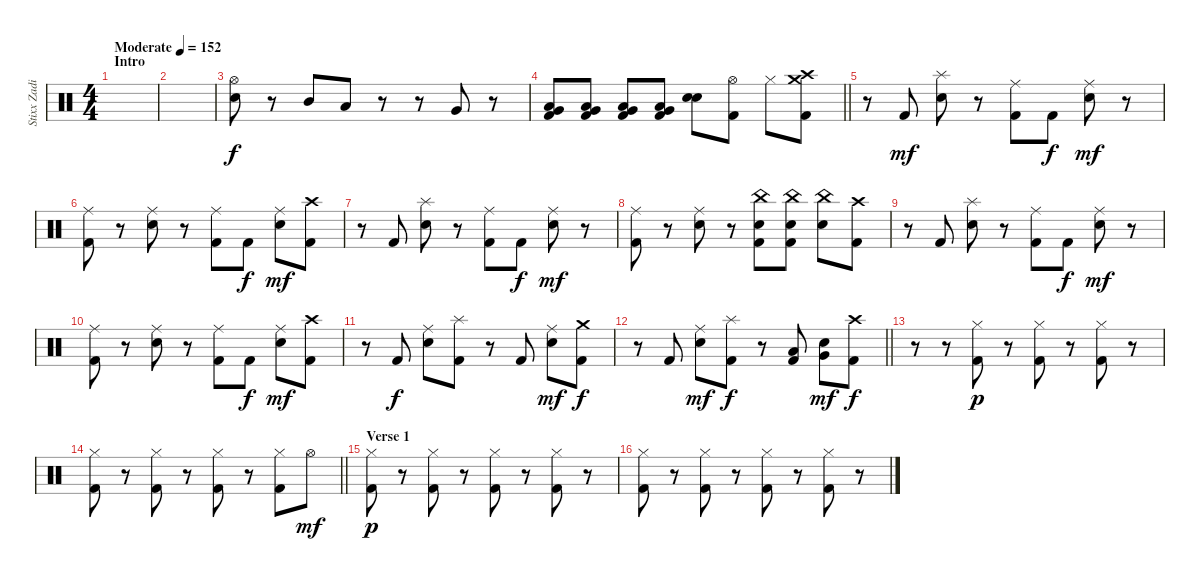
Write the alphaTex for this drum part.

\track ("Stixx Zadinia (Drums)" "Stixx Zadi") {instrument percussion}
\staff {score}
\articulation defaults
\ts (4 4)
\section ("" "Intro")
\tempo (152 "Moderate")
\clef neutral
\ks c
|
|
("Hi-Hat (open)" "Snare (hit) 2").8 r.8 "Mid Tom (hit)".8 "Low Tom (hit)".8 r.8 r.8 "Very Low Tom (hit)".8 r.8 |
\barLineRight lightlight
("Low Floor Tom (hit)" "Very Low Tom (hit)" "Kick (hit) 2").8 ("Low Floor Tom (hit)" "Very Low Tom (hit)" "Kick (hit) 2").8 ("Low Floor Tom (hit)" "Very Low Tom (hit)" "Kick (hit) 2").8 ("Low Floor Tom (hit)" "Very Low Tom (hit)" "Kick (hit) 2").8 ("Snare (hit) 2" "Snare (hit) 2").8 ("Hi-Hat (open)" "Kick (hit) 2").8 "Hi-Hat (closed)".8 ("Crash high (hit)" "Crash medium (hit)" "Kick (hit) 2").8 |
\section ("" "")
r.8 "Kick (hit) 2".8{dy mf} ("Splash (hit)" "Snare (hit) 2").8 r.8 ("Ride (middle)" "Kick (hit) 2").8 "Kick (hit) 2".8{dy f} ("Ride (middle)" "Snare (hit) 2").8{dy mf} r.8 |
("Ride (middle)" "Kick (hit) 2").8 r.8 ("Ride (middle)" "Snare (hit) 2").8 r.8 ("Ride (middle)" "Kick (hit) 2").8 "Kick (hit) 2".8{dy f} ("Ride (middle)" "Snare (hit) 2").8{dy mf} ("Crash high (hit)" "Kick (hit) 2").8 |
r.8 "Kick (hit) 2".8 ("Splash (hit)" "Snare (hit) 2").8 r.8 ("Ride (middle)" "Kick (hit) 2").8 "Kick (hit) 2".8{dy f} ("Ride (middle)" "Snare (hit) 2").8{dy mf} r.8 |
("Ride (middle)" "Kick (hit) 2").8 r.8 ("Ride (middle)" "Snare (hit) 2").8 r.8 ("China (hit)" "Snare (hit) 2" "Kick (hit) 2").8 ("China (hit)" "Snare (hit) 2" "Kick (hit) 2").8 ("China (hit)" "Snare (hit) 2").8 ("Crash high (hit)" "Kick (hit) 2").8 |
r.8 "Kick (hit) 2".8 ("Splash (hit)" "Snare (hit) 2").8 r.8 ("Ride (middle)" "Kick (hit) 2").8 "Kick (hit) 2".8{dy f} ("Ride (middle)" "Snare (hit) 2").8{dy mf} r.8 |
("Ride (middle)" "Kick (hit) 2").8 r.8 ("Ride (middle)" "Snare (hit) 2").8 r.8 ("Ride (middle)" "Kick (hit) 2").8 "Kick (hit) 2".8{dy f} ("Ride (middle)" "Snare (hit) 2").8{dy mf} ("Crash high (hit)" "Kick (hit) 2").8 |
r.8 "Kick (hit) 2".8{dy f} ("Ride (middle)" "Snare (hit) 2").8 ("Splash (hit)" "Kick (hit) 2").8 r.8 "Kick (hit) 2".8 ("Ride (middle)" "Snare (hit) 2").8{dy mf} ("Crash medium (hit)" "Kick (hit) 2").8{dy f} |
\barLineRight lightlight
r.8 "Kick (hit) 2".8 ("Ride (middle)" "Snare (hit) 2").8{dy mf} ("Splash (hit)" "Kick (hit) 2").8{dy f} r.8 ("Low Tom (hit)" "Kick (hit) 2").8 ("Very Low Tom (hit)" "Snare (hit) 2").8{dy mf} ("Crash high (hit)" "Kick (hit) 2").8{dy f} |
r.8 r.8 ("Hi-Hat (closed)" "Kick (hit) 2").8{dy p} r.8 ("Hi-Hat (closed)" "Kick (hit) 2").8 r.8 ("Hi-Hat (closed)" "Kick (hit) 2").8 r.8 |
\barLineRight lightlight
("Hi-Hat (closed)" "Kick (hit) 2").8 r.8 ("Hi-Hat (closed)" "Kick (hit) 2").8 r.8 ("Hi-Hat (closed)" "Kick (hit) 2").8 r.8 ("Hi-Hat (closed)" "Kick (hit) 2").8 "Hi-Hat (open)".8{dy mf} |
\section ("" "Verse 1")
("Hi-Hat (closed)" "Kick (hit) 2").8{dy p} r.8 ("Hi-Hat (closed)" "Kick (hit) 2").8 r.8 ("Hi-Hat (closed)" "Kick (hit) 2").8 r.8 ("Hi-Hat (closed)" "Kick (hit) 2").8 r.8 |
("Hi-Hat (closed)" "Kick (hit) 2").8 r.8 ("Hi-Hat (closed)" "Kick (hit) 2").8 r.8 ("Hi-Hat (closed)" "Kick (hit) 2").8 r.8 ("Hi-Hat (closed)" "Kick (hit) 2").8 r.8
